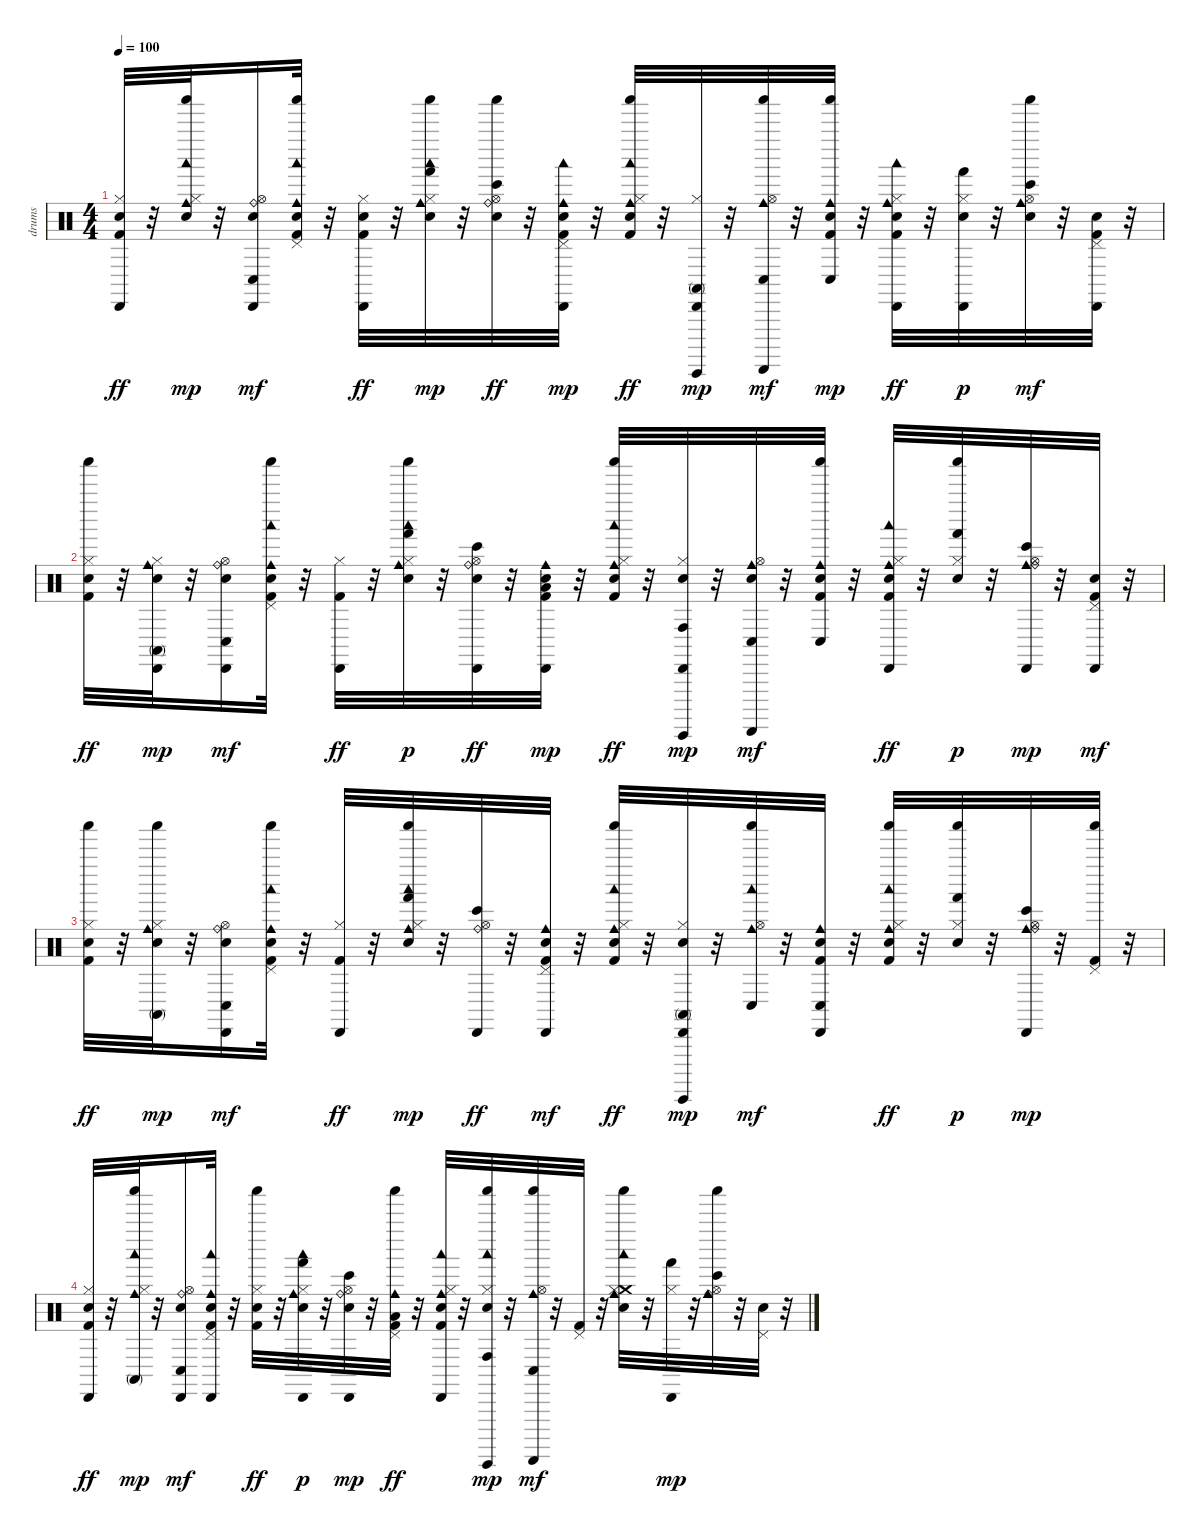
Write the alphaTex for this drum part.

\track ("drums" "drums") {instrument percussion}
\staff {score}
\articulation defaults
\ts (4 4)
\tempo 100
\clef neutral
\ks c
("Snare (hit) 2" "Hi-Hat (closed)" "Cabasa (hit)" "Kick (hit) 2").32{dy ff} r.32 ("Snare (hit) 2" "Hi-Hat (closed)" "Woodblock low (hit)" "Shaker (hit)" "Cowbell medium (hit)").32{dy mp} r.32 ("Snare (hit) 2" "Hi-Hat (open)" "Cabasa (hit)" "Ride (bell)" "Conga low (hit)").16{dy mf} ("Snare (hit) 2" "Pedal Hi-Hat (hit)" "Woodblock low (hit)" "Shaker (hit)" "Cowbell medium (hit)" "Kick (hit) 2").32 r.32 ("Snare (hit) 2" "Hi-Hat (closed)" "Cabasa (hit)" "Kick (hit) 2").32{dy ff} r.32 ("Snare (hit) 2" "Hi-Hat (closed)" "Woodblock low (hit)" "Shaker (hit)" "Cowbell medium (hit)" "Hand (hit)").32{dy mp} r.32 ("Snare (hit) 2" "Hi-Hat (open)" "Shaker (hit)" "Ride (bell)" "Bongo High (hit)").32{dy ff} r.32 ("Snare (hit) 2" "Pedal Hi-Hat (hit)" "Woodblock low (hit)" "Cabasa (hit)" "Cowbell medium (hit)" "Kick (hit) 2").32{dy mp} r.32 ("Snare (hit) 2" "Hi-Hat (closed)" "Woodblock low (hit)" "Shaker (hit)" "Cowbell medium (hit)" "Kick (hit) 2").32{dy ff} r.32 ("Hi-Hat (closed)" "Cabasa (hit)" "Guiro (hit)" "Conga high (mute)").32{dy mp} r.32 ("Hi-Hat (open)" "Shaker (hit)" "Guiro (scrap-return)" "Cowbell medium (hit)" "Conga low (hit)").32{dy mf} r.32 ("Snare (hit) 2" "Shaker (hit)" "Cowbell medium (hit)" "Kick (hit) 2" "Conga low (hit)").32{dy mp} r.32 ("Snare (hit) 2" "Hi-Hat (closed)" "Woodblock low (hit)" "Cabasa (hit)" "Cowbell medium (hit)" "Kick (hit) 2").32{dy ff} r.32 ("Snare (hit) 2" "Hi-Hat (closed)" "Cabasa (hit)" "Hand (hit)").32{dy p} r.32 ("Snare (hit) 2" "Hi-Hat (open)" "Shaker (hit)" "Cowbell medium (hit)" "Bongo High (hit)").32{dy mf} r.32 ("Snare (hit) 2" "Pedal Hi-Hat (hit)" "Cabasa (hit)" "Kick (hit) 2").32 r.32 |
("Snare (hit) 2" "Hi-Hat (closed)" "Shaker (hit)" "Kick (hit) 2").32{dy ff} r.32 ("Snare (hit) 2" "Hi-Hat (closed)" "Cabasa (hit)" "Cowbell medium (hit)" "Conga high (mute)").32{dy mp} r.32 ("Snare (hit) 2" "Hi-Hat (open)" "Cabasa (hit)" "Ride (bell)" "Conga low (hit)").16{dy mf} ("Snare (hit) 2" "Pedal Hi-Hat (hit)" "Woodblock low (hit)" "Shaker (hit)" "Cowbell medium (hit)" "Kick (hit) 2").32 r.32 ("Hi-Hat (closed)" "Cabasa (hit)" "Kick (hit) 2").32{dy ff} r.32 ("Snare (hit) 2" "Hi-Hat (closed)" "Woodblock low (hit)" "Shaker (hit)" "Cowbell medium (hit)" "Hand (hit)").32{dy p} r.32 ("Snare (hit) 2" "Hi-Hat (open)" "Cabasa (hit)" "Ride (bell)" "Bongo High (hit)").32{dy ff} r.32 ("Snare (hit) 2" "Cabasa (hit)" "Cowbell medium (hit)" "Kick (hit) 2" "Low Tom (hit)").32{dy mp} r.32 ("Snare (hit) 2" "Hi-Hat (closed)" "Woodblock low (hit)" "Shaker (hit)" "Cowbell medium (hit)" "Kick (hit) 2").32{dy ff} r.32 ("Snare (hit) 2" "Hi-Hat (closed)" "Cabasa (hit)" "Guiro (hit)" "Conga high (hit)").32{dy mp} r.32 ("Snare (hit) 2" "Hi-Hat (open)" "Guiro (scrap-return)" "Cowbell medium (hit)" "Conga low (hit)").32{dy mf} r.32 ("Snare (hit) 2" "Shaker (hit)" "Cowbell medium (hit)" "Kick (hit) 2" "Conga low (hit)").32 r.32 ("Snare (hit) 2" "Hi-Hat (closed)" "Woodblock low (hit)" "Cabasa (hit)" "Cowbell medium (hit)" "Kick (hit) 2").32{dy ff} r.32 ("Snare (hit) 2" "Hi-Hat (closed)" "Shaker (hit)" "Hand (hit)").32{dy p} r.32 ("Hi-Hat (open)" "Cabasa (hit)" "Cowbell medium (hit)" "Ride (bell)" "Bongo High (hit)").32{dy mp} r.32 ("Snare (hit) 2" "Pedal Hi-Hat (hit)" "Cabasa (hit)" "Kick (hit) 2").32{dy mf} r.32 |
("Snare (hit) 2" "Hi-Hat (closed)" "Shaker (hit)" "Kick (hit) 2").32{dy ff} r.32 ("Snare (hit) 2" "Hi-Hat (closed)" "Shaker (hit)" "Cowbell medium (hit)" "Conga high (mute)").32{dy mp} r.32 ("Snare (hit) 2" "Hi-Hat (open)" "Cabasa (hit)" "Ride (bell)" "Conga low (hit)").16{dy mf} ("Snare (hit) 2" "Pedal Hi-Hat (hit)" "Woodblock low (hit)" "Shaker (hit)" "Cowbell medium (hit)" "Kick (hit) 2").32 r.32 ("Hi-Hat (closed)" "Cabasa (hit)" "Kick (hit) 2").32{dy ff} r.32 ("Snare (hit) 2" "Hi-Hat (closed)" "Woodblock low (hit)" "Shaker (hit)" "Cowbell medium (hit)" "Hand (hit)").32{dy mp} r.32 ("Hi-Hat (open)" "Cabasa (hit)" "Ride (bell)" "Bongo High (hit)").32{dy ff} r.32 ("Snare (hit) 2" "Pedal Hi-Hat (hit)" "Cabasa (hit)" "Cowbell medium (hit)" "Kick (hit) 2").32{dy mf} r.32 ("Snare (hit) 2" "Hi-Hat (closed)" "Woodblock low (hit)" "Shaker (hit)" "Cowbell medium (hit)" "Kick (hit) 2").32{dy ff} r.32 ("Snare (hit) 2" "Hi-Hat (closed)" "Cabasa (hit)" "Guiro (hit)" "Conga high (mute)").32{dy mp} r.32 ("Hi-Hat (open)" "Woodblock low (hit)" "Shaker (hit)" "Cowbell medium (hit)" "Conga low (hit)").32{dy mf} r.32 ("Snare (hit) 2" "Cabasa (hit)" "Cowbell medium (hit)" "Kick (hit) 2" "Conga low (hit)").32 r.32 ("Snare (hit) 2" "Hi-Hat (closed)" "Woodblock low (hit)" "Shaker (hit)" "Cowbell medium (hit)" "Kick (hit) 2").32{dy ff} r.32 ("Snare (hit) 2" "Hi-Hat (closed)" "Shaker (hit)" "Hand (hit)").32{dy p} r.32 ("Hi-Hat (open)" "Cabasa (hit)" "Cowbell medium (hit)" "Ride (bell)" "Bongo High (hit)").32{dy mp} r.32 ("Pedal Hi-Hat (hit)" "Shaker (hit)" "Kick (hit) 2").32 r.32 |
("Snare (hit) 2" "Hi-Hat (closed)" "Cabasa (hit)" "Kick (hit) 2").32{dy ff} r.32 ("Hi-Hat (closed)" "Woodblock low (hit)" "Shaker (hit)" "Cowbell medium (hit)" "Conga high (mute)").32{dy mp} r.32 ("Snare (hit) 2" "Hi-Hat (open)" "Cabasa (hit)" "Ride (bell)" "Conga low (hit)").16{dy mf} ("Snare (hit) 2" "Pedal Hi-Hat (hit)" "Woodblock low (hit)" "Cabasa (hit)" "Cowbell medium (hit)" "Kick (hit) 2").32 r.32 ("Snare (hit) 2" "Hi-Hat (closed)" "Shaker (hit)" "Kick (hit) 2").32{dy ff} r.32 ("Snare (hit) 2" "Hi-Hat (closed)" "Woodblock low (hit)" "Cabasa (hit)" "Cowbell medium (hit)" "Hand (hit)").32{dy p} r.32 ("Snare (hit) 2" "Hi-Hat (open)" "Cabasa (hit)" "Ride (bell)" "Bongo High (hit)").32{dy mp} r.32 ("Pedal Hi-Hat (hit)" "Shaker (hit)" "Cowbell medium (hit)" "Kick (hit) 2" "Low Tom (hit)").32{dy ff} r.32 ("Snare (hit) 2" "Hi-Hat (closed)" "Woodblock low (hit)" "Cabasa (hit)" "Cowbell medium (hit)" "Kick (hit) 2").32 r.32 ("Snare (hit) 2" "Hi-Hat (closed)" "Woodblock low (hit)" "Shaker (hit)" "Guiro (hit)" "Conga high (hit)").32{dy mp} r.32 ("Hi-Hat (open)" "Shaker (hit)" "Guiro (scrap-return)" "Cowbell medium (hit)" "Conga low (hit)").32{dy mf} r.32 ("Pedal Hi-Hat (hit)" "Kick (hit) 2").32 r.32 ("Crash medium (hit)" "Snare (hit) 2" "Hi-Hat (closed)" "Woodblock low (hit)" "Shaker (hit)" "Cowbell medium (hit)").32 r.32 ("Hi-Hat (closed)" "Cabasa (hit)" "Hand (hit)").32{dy mp} r.32 ("Hi-Hat (open)" "Shaker (hit)" "Cowbell medium (hit)" "Ride (bell)" "Bongo High (hit)").32 r.32 ("Snare (hit) 2" "Pedal Hi-Hat (hit)").32 r.32
